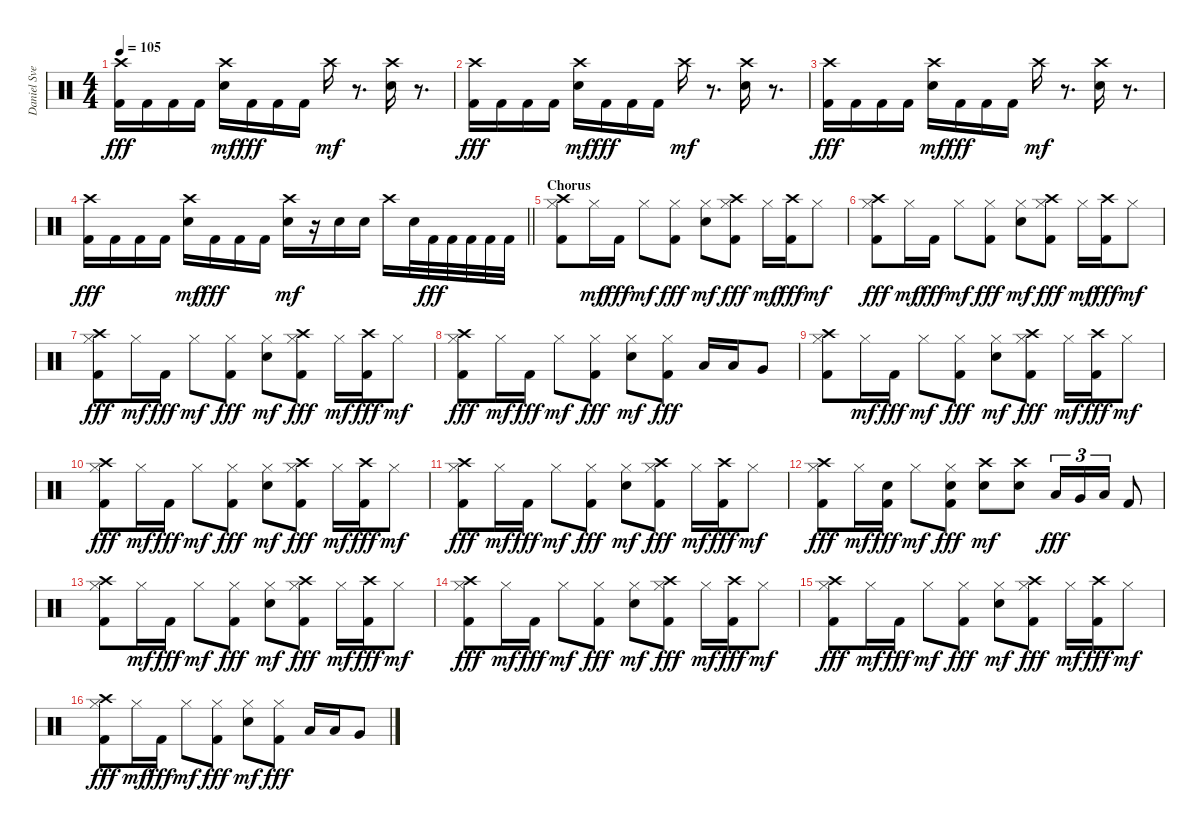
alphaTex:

\track ("Daniel Svensson" "Daniel Sve") {instrument percussion}
\staff {score}
\articulation defaults
\ts (4 4)
\tempo 105
\clef neutral
\ks c
("Crash high (hit)" "Kick (hit) 2").16{dy fff} "Kick (hit) 2".16 "Kick (hit) 2".16 "Kick (hit) 2".16 ("Crash high (hit)" "Electric Snare (hit)").16{dy mf} "Kick (hit) 2".16{dy fff} "Kick (hit) 2".16 "Kick (hit) 2".16 "Crash high (hit)".16{dy mf} r.8{d} ("Crash high (hit)" "Electric Snare (hit)").16 r.8{d} |
("Crash high (hit)" "Kick (hit) 2").16{dy fff} "Kick (hit) 2".16 "Kick (hit) 2".16 "Kick (hit) 2".16 ("Crash high (hit)" "Electric Snare (hit)").16{dy mf} "Kick (hit) 2".16{dy fff} "Kick (hit) 2".16 "Kick (hit) 2".16 "Crash high (hit)".16{dy mf} r.8{d} ("Crash high (hit)" "Electric Snare (hit)").16 r.8{d} |
("Crash high (hit)" "Kick (hit) 2").16{dy fff} "Kick (hit) 2".16 "Kick (hit) 2".16 "Kick (hit) 2".16 ("Crash high (hit)" "Electric Snare (hit)").16{dy mf} "Kick (hit) 2".16{dy fff} "Kick (hit) 2".16 "Kick (hit) 2".16 "Crash high (hit)".16{dy mf} r.8{d} ("Crash high (hit)" "Electric Snare (hit)").16 r.8{d} |
\barLineRight lightlight
("Crash high (hit)" "Kick (hit) 2").16{dy fff} "Kick (hit) 2".16 "Kick (hit) 2".16 "Kick (hit) 2".16 ("Crash high (hit)" "Electric Snare (hit)").16{dy mf} "Kick (hit) 2".16{dy fff} "Kick (hit) 2".16 "Kick (hit) 2".16 ("Crash high (hit)" "Electric Snare (hit)").16{dy mf} r.16 "Electric Snare (hit)".16 "Electric Snare (hit)".16 "Crash high (hit)".16 "Electric Snare (hit)".32 "Kick (hit) 2".32{dy fff} "Kick (hit) 2".32 "Kick (hit) 2".32 "Kick (hit) 2".32 "Kick (hit) 2".32 |
\section ("" "Chorus")
("Crash high (hit)" "Hi-Hat (closed)" "Kick (hit) 2").8 "Hi-Hat (closed)".16{dy mf} "Kick (hit) 2".16{dy fff} "Hi-Hat (closed)".8{dy mf} ("Hi-Hat (closed)" "Kick (hit) 2").8{dy fff} ("Hi-Hat (closed)" "Electric Snare (hit)").8{dy mf} ("Crash high (hit)" "Hi-Hat (closed)" "Kick (hit) 2").8{dy fff} "Hi-Hat (closed)".16{dy mf} ("Crash high (hit)" "Kick (hit) 2").16{dy fff} "Hi-Hat (closed)".8{dy mf} |
("Crash high (hit)" "Hi-Hat (closed)" "Kick (hit) 2").8{dy fff} "Hi-Hat (closed)".16{dy mf} "Kick (hit) 2".16{dy fff} "Hi-Hat (closed)".8{dy mf} ("Hi-Hat (closed)" "Kick (hit) 2").8{dy fff} ("Hi-Hat (closed)" "Electric Snare (hit)").8{dy mf} ("Crash high (hit)" "Hi-Hat (closed)" "Kick (hit) 2").8{dy fff} "Hi-Hat (closed)".16{dy mf} ("Crash high (hit)" "Kick (hit) 2").16{dy fff} "Hi-Hat (closed)".8{dy mf} |
("Crash high (hit)" "Hi-Hat (closed)" "Kick (hit) 2").8{dy fff} "Hi-Hat (closed)".16{dy mf} "Kick (hit) 2".16{dy fff} "Hi-Hat (closed)".8{dy mf} ("Hi-Hat (closed)" "Kick (hit) 2").8{dy fff} ("Hi-Hat (closed)" "Electric Snare (hit)").8{dy mf} ("Crash high (hit)" "Hi-Hat (closed)" "Kick (hit) 2").8{dy fff} "Hi-Hat (closed)".16{dy mf} ("Crash high (hit)" "Kick (hit) 2").16{dy fff} "Hi-Hat (closed)".8{dy mf} |
("Crash high (hit)" "Hi-Hat (closed)" "Kick (hit) 2").8{dy fff} "Hi-Hat (closed)".16{dy mf} "Kick (hit) 2".16{dy fff} "Hi-Hat (closed)".8{dy mf} ("Hi-Hat (closed)" "Kick (hit) 2").8{dy fff} ("Hi-Hat (closed)" "Electric Snare (hit)").8{dy mf} ("Hi-Hat (closed)" "Kick (hit) 2").8{dy fff} "Low Tom (hit)".16 "Low Tom (hit)".16 "Very Low Tom (hit)".8 |
("Crash high (hit)" "Hi-Hat (closed)" "Kick (hit) 2").8 "Hi-Hat (closed)".16{dy mf} "Kick (hit) 2".16{dy fff} "Hi-Hat (closed)".8{dy mf} ("Hi-Hat (closed)" "Kick (hit) 2").8{dy fff} ("Hi-Hat (closed)" "Electric Snare (hit)").8{dy mf} ("Crash high (hit)" "Hi-Hat (closed)" "Kick (hit) 2").8{dy fff} "Hi-Hat (closed)".16{dy mf} ("Crash high (hit)" "Kick (hit) 2").16{dy fff} "Hi-Hat (closed)".8{dy mf} |
("Crash high (hit)" "Hi-Hat (closed)" "Kick (hit) 2").8{dy fff} "Hi-Hat (closed)".16{dy mf} "Kick (hit) 2".16{dy fff} "Hi-Hat (closed)".8{dy mf} ("Hi-Hat (closed)" "Kick (hit) 2").8{dy fff} ("Hi-Hat (closed)" "Electric Snare (hit)").8{dy mf} ("Crash high (hit)" "Hi-Hat (closed)" "Kick (hit) 2").8{dy fff} "Hi-Hat (closed)".16{dy mf} ("Crash high (hit)" "Kick (hit) 2").16{dy fff} "Hi-Hat (closed)".8{dy mf} |
("Crash high (hit)" "Hi-Hat (closed)" "Kick (hit) 2").8{dy fff} "Hi-Hat (closed)".16{dy mf} "Kick (hit) 2".16{dy fff} "Hi-Hat (closed)".8{dy mf} ("Hi-Hat (closed)" "Kick (hit) 2").8{dy fff} ("Hi-Hat (closed)" "Electric Snare (hit)").8{dy mf} ("Crash high (hit)" "Hi-Hat (closed)" "Kick (hit) 2").8{dy fff} "Hi-Hat (closed)".16{dy mf} ("Crash high (hit)" "Kick (hit) 2").16{dy fff} "Hi-Hat (closed)".8{dy mf} |
("Crash high (hit)" "Hi-Hat (closed)" "Kick (hit) 2").8{dy fff} "Hi-Hat (closed)".16{dy mf} ("Electric Snare (hit)" "Kick (hit) 2").16{dy fff} "Hi-Hat (closed)".8{dy mf} ("Hi-Hat (closed)" "Electric Snare (hit)" "Kick (hit) 2").8{dy fff} ("Crash high (hit)" "Electric Snare (hit)").8{dy mf} ("Crash high (hit)" "Electric Snare (hit)").8 "Low Tom (hit)".16{tu (3 2) dy fff} "Very Low Tom (hit)".16{tu (3 2)} "Low Floor Tom (hit)".16{tu (3 2)} "Kick (hit) 2".8 |
("Crash high (hit)" "Hi-Hat (closed)" "Kick (hit) 2").8 "Hi-Hat (closed)".16{dy mf} "Kick (hit) 2".16{dy fff} "Hi-Hat (closed)".8{dy mf} ("Hi-Hat (closed)" "Kick (hit) 2").8{dy fff} ("Hi-Hat (closed)" "Electric Snare (hit)").8{dy mf} ("Crash high (hit)" "Hi-Hat (closed)" "Kick (hit) 2").8{dy fff} "Hi-Hat (closed)".16{dy mf} ("Crash high (hit)" "Kick (hit) 2").16{dy fff} "Hi-Hat (closed)".8{dy mf} |
("Crash high (hit)" "Hi-Hat (closed)" "Kick (hit) 2").8{dy fff} "Hi-Hat (closed)".16{dy mf} "Kick (hit) 2".16{dy fff} "Hi-Hat (closed)".8{dy mf} ("Hi-Hat (closed)" "Kick (hit) 2").8{dy fff} ("Hi-Hat (closed)" "Electric Snare (hit)").8{dy mf} ("Crash high (hit)" "Hi-Hat (closed)" "Kick (hit) 2").8{dy fff} "Hi-Hat (closed)".16{dy mf} ("Crash high (hit)" "Kick (hit) 2").16{dy fff} "Hi-Hat (closed)".8{dy mf} |
("Crash high (hit)" "Hi-Hat (closed)" "Kick (hit) 2").8{dy fff} "Hi-Hat (closed)".16{dy mf} "Kick (hit) 2".16{dy fff} "Hi-Hat (closed)".8{dy mf} ("Hi-Hat (closed)" "Kick (hit) 2").8{dy fff} ("Hi-Hat (closed)" "Electric Snare (hit)").8{dy mf} ("Crash high (hit)" "Hi-Hat (closed)" "Kick (hit) 2").8{dy fff} "Hi-Hat (closed)".16{dy mf} ("Crash high (hit)" "Kick (hit) 2").16{dy fff} "Hi-Hat (closed)".8{dy mf} |
("Crash high (hit)" "Hi-Hat (closed)" "Kick (hit) 2").8{dy fff} "Hi-Hat (closed)".16{dy mf} "Kick (hit) 2".16{dy fff} "Hi-Hat (closed)".8{dy mf} ("Hi-Hat (closed)" "Kick (hit) 2").8{dy fff} ("Hi-Hat (closed)" "Electric Snare (hit)").8{dy mf} ("Hi-Hat (closed)" "Kick (hit) 2").8{dy fff} "Low Tom (hit)".16 "Low Tom (hit)".16 "Very Low Tom (hit)".8
